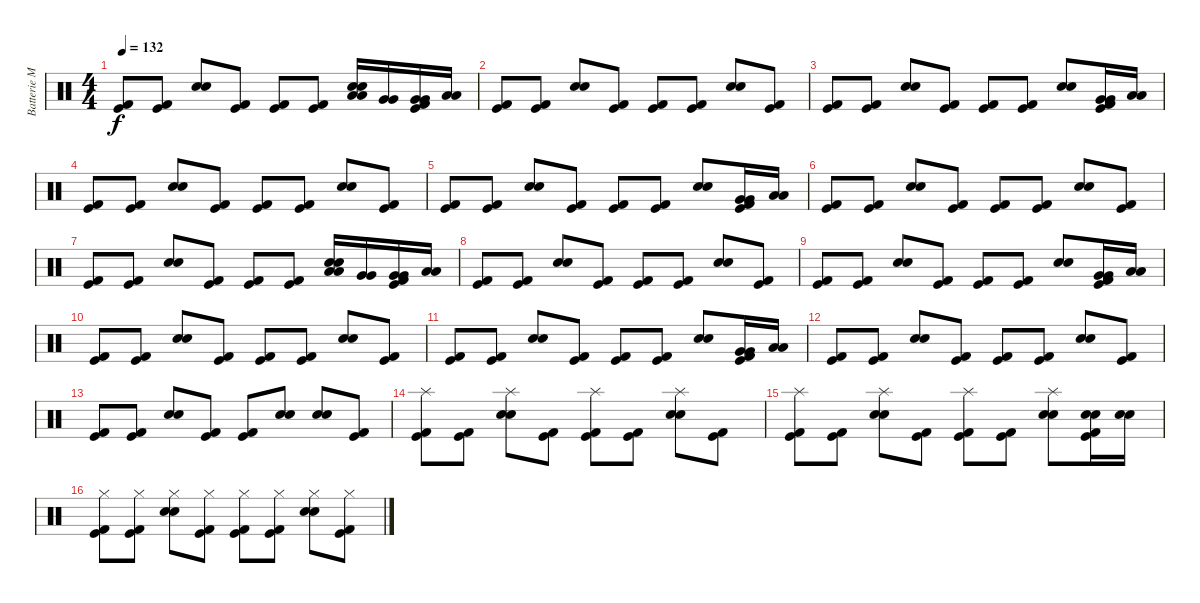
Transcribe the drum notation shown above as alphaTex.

\track ("Batterie Mat" "Batterie M") {instrument percussion}
\staff {score}
\articulation defaults
\ts (4 4)
\tempo 132
\clef neutral
\ks c
("Kick (hit) 2" "Kick (hit)").8{dy f} ("Kick (hit) 2" "Kick (hit)").8 ("Electric Snare (hit)" "Electric Snare (hit)").8 ("Kick (hit) 2" "Kick (hit)").8 ("Kick (hit) 2" "Kick (hit)").8 ("Kick (hit) 2" "Kick (hit)").8 ("Electric Snare (hit)" "Electric Snare (hit)" "Low Tom (hit)" "Low Tom (hit)").16 ("Very Low Tom (hit)" "Very Low Tom (hit)").16 ("Very Low Tom (hit)" "Very Low Tom (hit)" "Kick (hit) 2" "Kick (hit)").16 ("Low Floor Tom (hit)" "Low Floor Tom (hit)").16 |
("Kick (hit) 2" "Kick (hit)").8 ("Kick (hit) 2" "Kick (hit)").8 ("Electric Snare (hit)" "Electric Snare (hit)").8 ("Kick (hit) 2" "Kick (hit)").8 ("Kick (hit) 2" "Kick (hit)").8 ("Kick (hit) 2" "Kick (hit)").8 ("Electric Snare (hit)" "Electric Snare (hit)").8 ("Kick (hit) 2" "Kick (hit)").8 |
("Kick (hit) 2" "Kick (hit)").8 ("Kick (hit) 2" "Kick (hit)").8 ("Electric Snare (hit)" "Electric Snare (hit)").8 ("Kick (hit) 2" "Kick (hit)").8 ("Kick (hit) 2" "Kick (hit)").8 ("Kick (hit) 2" "Kick (hit)").8 ("Electric Snare (hit)" "Electric Snare (hit)").8 ("Very Low Tom (hit)" "Very Low Tom (hit)" "Kick (hit) 2" "Kick (hit)").16 ("Low Floor Tom (hit)" "Low Floor Tom (hit)").16 |
("Kick (hit) 2" "Kick (hit)").8 ("Kick (hit) 2" "Kick (hit)").8 ("Electric Snare (hit)" "Electric Snare (hit)").8 ("Kick (hit) 2" "Kick (hit)").8 ("Kick (hit) 2" "Kick (hit)").8 ("Kick (hit) 2" "Kick (hit)").8 ("Electric Snare (hit)" "Electric Snare (hit)").8 ("Kick (hit) 2" "Kick (hit)").8 |
("Kick (hit) 2" "Kick (hit)").8 ("Kick (hit) 2" "Kick (hit)").8 ("Electric Snare (hit)" "Electric Snare (hit)").8 ("Kick (hit) 2" "Kick (hit)").8 ("Kick (hit) 2" "Kick (hit)").8 ("Kick (hit) 2" "Kick (hit)").8 ("Electric Snare (hit)" "Electric Snare (hit)").8 ("Very Low Tom (hit)" "Very Low Tom (hit)" "Kick (hit) 2" "Kick (hit)").16 ("Low Floor Tom (hit)" "Low Floor Tom (hit)").16 |
("Kick (hit) 2" "Kick (hit)").8 ("Kick (hit) 2" "Kick (hit)").8 ("Electric Snare (hit)" "Electric Snare (hit)").8 ("Kick (hit) 2" "Kick (hit)").8 ("Kick (hit) 2" "Kick (hit)").8 ("Kick (hit) 2" "Kick (hit)").8 ("Electric Snare (hit)" "Electric Snare (hit)").8 ("Kick (hit) 2" "Kick (hit)").8 |
("Kick (hit) 2" "Kick (hit)").8 ("Kick (hit) 2" "Kick (hit)").8 ("Electric Snare (hit)" "Electric Snare (hit)").8 ("Kick (hit) 2" "Kick (hit)").8 ("Kick (hit) 2" "Kick (hit)").8 ("Kick (hit) 2" "Kick (hit)").8 ("Electric Snare (hit)" "Electric Snare (hit)" "Low Tom (hit)" "Low Tom (hit)").16 ("Very Low Tom (hit)" "Very Low Tom (hit)").16 ("Very Low Tom (hit)" "Very Low Tom (hit)" "Kick (hit) 2" "Kick (hit)").16 ("Low Floor Tom (hit)" "Low Floor Tom (hit)").16 |
("Kick (hit) 2" "Kick (hit)").8 ("Kick (hit) 2" "Kick (hit)").8 ("Electric Snare (hit)" "Electric Snare (hit)").8 ("Kick (hit) 2" "Kick (hit)").8 ("Kick (hit) 2" "Kick (hit)").8 ("Kick (hit) 2" "Kick (hit)").8 ("Electric Snare (hit)" "Electric Snare (hit)").8 ("Kick (hit) 2" "Kick (hit)").8 |
("Kick (hit) 2" "Kick (hit)").8 ("Kick (hit) 2" "Kick (hit)").8 ("Electric Snare (hit)" "Electric Snare (hit)").8 ("Kick (hit) 2" "Kick (hit)").8 ("Kick (hit) 2" "Kick (hit)").8 ("Kick (hit) 2" "Kick (hit)").8 ("Electric Snare (hit)" "Electric Snare (hit)").8 ("Very Low Tom (hit)" "Very Low Tom (hit)" "Kick (hit) 2" "Kick (hit)").16 ("Low Floor Tom (hit)" "Low Floor Tom (hit)").16 |
("Kick (hit) 2" "Kick (hit)").8 ("Kick (hit) 2" "Kick (hit)").8 ("Electric Snare (hit)" "Electric Snare (hit)").8 ("Kick (hit) 2" "Kick (hit)").8 ("Kick (hit) 2" "Kick (hit)").8 ("Kick (hit) 2" "Kick (hit)").8 ("Electric Snare (hit)" "Electric Snare (hit)").8 ("Kick (hit) 2" "Kick (hit)").8 |
("Kick (hit) 2" "Kick (hit)").8 ("Kick (hit) 2" "Kick (hit)").8 ("Electric Snare (hit)" "Electric Snare (hit)").8 ("Kick (hit) 2" "Kick (hit)").8 ("Kick (hit) 2" "Kick (hit)").8 ("Kick (hit) 2" "Kick (hit)").8 ("Electric Snare (hit)" "Electric Snare (hit)").8 ("Very Low Tom (hit)" "Very Low Tom (hit)" "Kick (hit) 2" "Kick (hit)").16 ("Low Floor Tom (hit)" "Low Floor Tom (hit)").16 |
("Kick (hit) 2" "Kick (hit)").8 ("Kick (hit) 2" "Kick (hit)").8 ("Electric Snare (hit)" "Electric Snare (hit)").8 ("Kick (hit) 2" "Kick (hit)").8 ("Kick (hit) 2" "Kick (hit)").8 ("Kick (hit) 2" "Kick (hit)").8 ("Electric Snare (hit)" "Electric Snare (hit)").8 ("Kick (hit) 2" "Kick (hit)").8 |
("Kick (hit) 2" "Kick (hit)").8 ("Kick (hit) 2" "Kick (hit)").8 ("Electric Snare (hit)" "Electric Snare (hit)").8 ("Kick (hit) 2" "Kick (hit)").8 ("Kick (hit) 2" "Kick (hit)").8 ("Electric Snare (hit)" "Electric Snare (hit)").8 ("Electric Snare (hit)" "Electric Snare (hit)").8 ("Kick (hit) 2" "Kick (hit)").8 |
("Splash (hit)" "Kick (hit) 2" "Kick (hit)").8 ("Kick (hit) 2" "Kick (hit)").8 ("Splash (hit)" "Electric Snare (hit)" "Electric Snare (hit)").8 ("Kick (hit) 2" "Kick (hit)").8 ("Splash (hit)" "Kick (hit) 2" "Kick (hit)").8 ("Kick (hit) 2" "Kick (hit)").8 ("Splash (hit)" "Electric Snare (hit)" "Electric Snare (hit)").8 ("Kick (hit) 2" "Kick (hit)").8 |
("Splash (hit)" "Kick (hit) 2" "Kick (hit)").8 ("Kick (hit) 2" "Kick (hit)").8 ("Splash (hit)" "Electric Snare (hit)" "Electric Snare (hit)").8 ("Kick (hit) 2" "Kick (hit)").8 ("Splash (hit)" "Kick (hit) 2" "Kick (hit)").8 ("Kick (hit) 2" "Kick (hit)").8 ("Splash (hit)" "Electric Snare (hit)" "Electric Snare (hit)").8 ("Electric Snare (hit)" "Electric Snare (hit)" "Kick (hit) 2" "Kick (hit)").16 ("Electric Snare (hit)" "Electric Snare (hit)").16 |
("Hi-Hat (closed)" "Kick (hit) 2" "Kick (hit)").8 ("Hi-Hat (closed)" "Kick (hit) 2" "Kick (hit)").8 ("Hi-Hat (closed)" "Electric Snare (hit)" "Electric Snare (hit)").8 ("Hi-Hat (closed)" "Kick (hit) 2" "Kick (hit)").8 ("Hi-Hat (closed)" "Kick (hit) 2" "Kick (hit)").8 ("Hi-Hat (closed)" "Kick (hit) 2" "Kick (hit)").8 ("Hi-Hat (closed)" "Electric Snare (hit)" "Electric Snare (hit)").8 ("Hi-Hat (closed)" "Kick (hit) 2" "Kick (hit)").8
